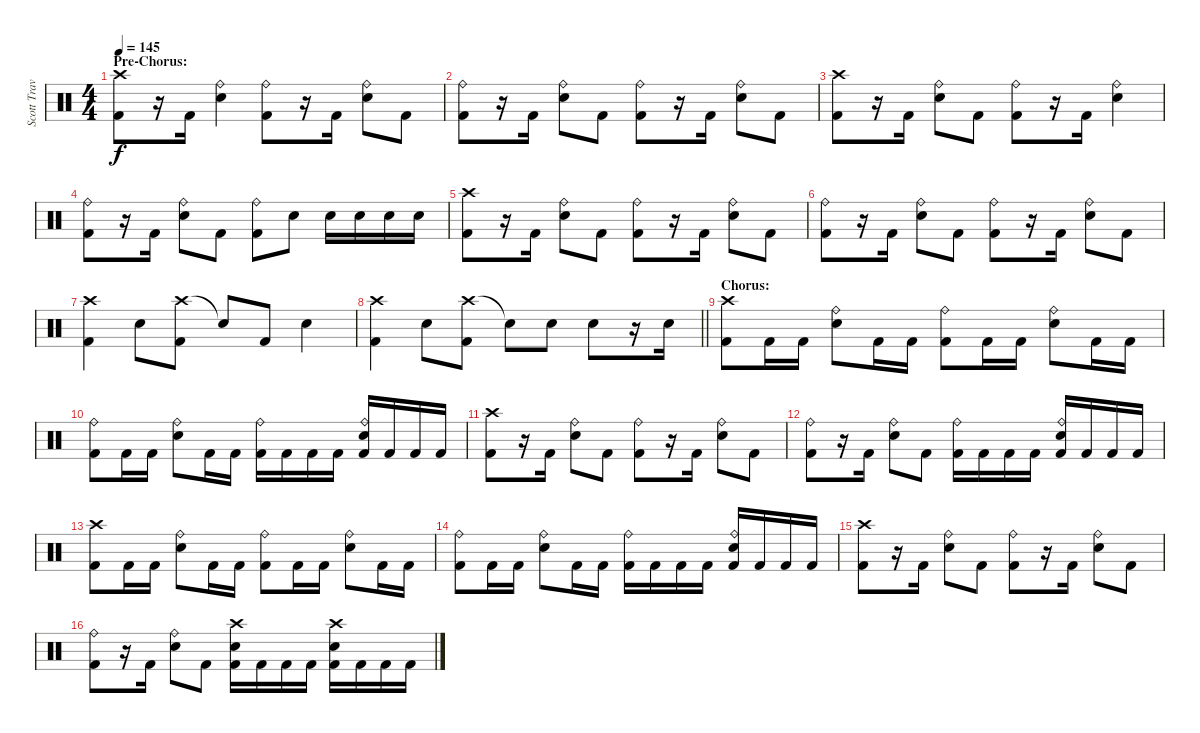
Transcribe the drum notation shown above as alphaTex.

\track ("Scott Travis" "Scott Trav") {instrument percussion}
\staff {score}
\articulation defaults
\ts (4 4)
\section ("" "Pre-Chorus:")
\tempo 145
\clef neutral
\ks c
("Crash high (hit)" "Kick (hit) 2").8{dy f} r.16 "Kick (hit) 2".16 ("Ride (bell)" "Snare (hit) 2").4 ("Ride (bell)" "Kick (hit) 2").8 r.16 "Kick (hit) 2".16 ("Ride (bell)" "Snare (hit) 2").8 "Kick (hit) 2".8 |
("Ride (bell)" "Kick (hit) 2").8 r.16 "Kick (hit) 2".16 ("Ride (bell)" "Snare (hit) 2").8 "Kick (hit) 2".8 ("Ride (bell)" "Kick (hit) 2").8 r.16 "Kick (hit) 2".16 ("Ride (bell)" "Snare (hit) 2").8 "Kick (hit) 2".8 |
("Crash high (hit)" "Kick (hit) 2").8 r.16 "Kick (hit) 2".16 ("Ride (bell)" "Snare (hit) 2").8 "Kick (hit) 2".8 ("Ride (bell)" "Kick (hit) 2").8 r.16 "Kick (hit) 2".16 ("Ride (bell)" "Snare (hit) 2").4 |
("Ride (bell)" "Kick (hit) 2").8 r.16 "Kick (hit) 2".16 ("Ride (bell)" "Snare (hit) 2").8 "Kick (hit) 2".8 ("Ride (bell)" "Kick (hit) 2").8 "Snare (hit) 2".8 "Snare (hit) 2".16 "Snare (hit) 2".16 "Snare (hit) 2".16 "Snare (hit) 2".16 |
("Crash high (hit)" "Kick (hit) 2").8 r.16 "Kick (hit) 2".16 ("Ride (bell)" "Snare (hit) 2").8 "Kick (hit) 2".8 ("Ride (bell)" "Kick (hit) 2").8 r.16 "Kick (hit) 2".16 ("Ride (bell)" "Snare (hit) 2").8 "Kick (hit) 2".8 |
("Ride (bell)" "Kick (hit) 2").8 r.16 "Kick (hit) 2".16 ("Ride (bell)" "Snare (hit) 2").8 "Kick (hit) 2".8 ("Ride (bell)" "Kick (hit) 2").8 r.16 "Kick (hit) 2".16 ("Ride (bell)" "Snare (hit) 2").8 "Kick (hit) 2".8 |
("Crash high (hit)" "Kick (hit) 2").4 "Snare (hit) 2".8 ("Crash high (hit)" "Kick (hit) 2").8 "Snare (hit)"{t}.8 "Kick (hit) 2".8 "Snare (hit) 2".4 |
\barLineRight lightlight
("Crash high (hit)" "Kick (hit) 2").4 "Snare (hit) 2".8 ("Crash high (hit)" "Kick (hit) 2").8 "Snare (hit)"{t}.8 "Snare (hit) 2".8 "Snare (hit) 2".8 r.16 "Snare (hit) 2".16 |
\section ("" "Chorus:")
("Crash high (hit)" "Kick (hit) 2").8 "Kick (hit) 2".16 "Kick (hit) 2".16 ("Ride (bell)" "Snare (hit) 2").8 "Kick (hit) 2".16 "Kick (hit) 2".16 ("Ride (bell)" "Kick (hit) 2").8 "Kick (hit) 2".16 "Kick (hit) 2".16 ("Ride (bell)" "Snare (hit) 2").8 "Kick (hit) 2".16 "Kick (hit) 2".16 |
("Ride (bell)" "Kick (hit) 2").8 "Kick (hit) 2".16 "Kick (hit) 2".16 ("Ride (bell)" "Snare (hit) 2").8 "Kick (hit) 2".16 "Kick (hit) 2".16 ("Ride (bell)" "Kick (hit) 2").16 "Kick (hit) 2".16 "Kick (hit) 2".16 "Kick (hit) 2".16 ("Ride (bell)" "Snare (hit) 2" "Kick (hit) 2").16 "Kick (hit) 2".16 "Kick (hit) 2".16 "Kick (hit) 2".16 |
("Crash high (hit)" "Kick (hit) 2").8 r.16 "Kick (hit) 2".16 ("Ride (bell)" "Snare (hit) 2").8 "Kick (hit) 2".8 ("Ride (bell)" "Kick (hit) 2").8 r.16 "Kick (hit) 2".16 ("Ride (bell)" "Snare (hit) 2").8 "Kick (hit) 2".8 |
("Ride (bell)" "Kick (hit) 2").8 r.16 "Kick (hit) 2".16 ("Ride (bell)" "Snare (hit) 2").8 "Kick (hit) 2".8 ("Ride (bell)" "Kick (hit) 2").16 "Kick (hit) 2".16 "Kick (hit) 2".16 "Kick (hit) 2".16 ("Ride (bell)" "Snare (hit) 2" "Kick (hit) 2").16 "Kick (hit) 2".16 "Kick (hit) 2".16 "Kick (hit) 2".16 |
("Crash high (hit)" "Kick (hit) 2").8 "Kick (hit) 2".16 "Kick (hit) 2".16 ("Ride (bell)" "Snare (hit) 2").8 "Kick (hit) 2".16 "Kick (hit) 2".16 ("Ride (bell)" "Kick (hit) 2").8 "Kick (hit) 2".16 "Kick (hit) 2".16 ("Ride (bell)" "Snare (hit) 2").8 "Kick (hit) 2".16 "Kick (hit) 2".16 |
("Ride (bell)" "Kick (hit) 2").8 "Kick (hit) 2".16 "Kick (hit) 2".16 ("Ride (bell)" "Snare (hit) 2").8 "Kick (hit) 2".16 "Kick (hit) 2".16 ("Ride (bell)" "Kick (hit) 2").16 "Kick (hit) 2".16 "Kick (hit) 2".16 "Kick (hit) 2".16 ("Ride (bell)" "Snare (hit) 2" "Kick (hit) 2").16 "Kick (hit) 2".16 "Kick (hit) 2".16 "Kick (hit) 2".16 |
("Crash high (hit)" "Kick (hit) 2").8 r.16 "Kick (hit) 2".16 ("Ride (bell)" "Snare (hit) 2").8 "Kick (hit) 2".8 ("Ride (bell)" "Kick (hit) 2").8 r.16 "Kick (hit) 2".16 ("Ride (bell)" "Snare (hit) 2").8 "Kick (hit) 2".8 |
("Ride (bell)" "Kick (hit) 2").8 r.16 "Kick (hit) 2".16 ("Ride (bell)" "Snare (hit) 2").8 "Kick (hit) 2".8 ("Crash high (hit)" "Snare (hit) 2" "Kick (hit) 2").16 "Kick (hit) 2".16 "Kick (hit) 2".16 "Kick (hit) 2".16 ("Crash high (hit)" "Snare (hit) 2" "Kick (hit) 2").16 "Kick (hit) 2".16 "Kick (hit) 2".16 "Kick (hit) 2".16
